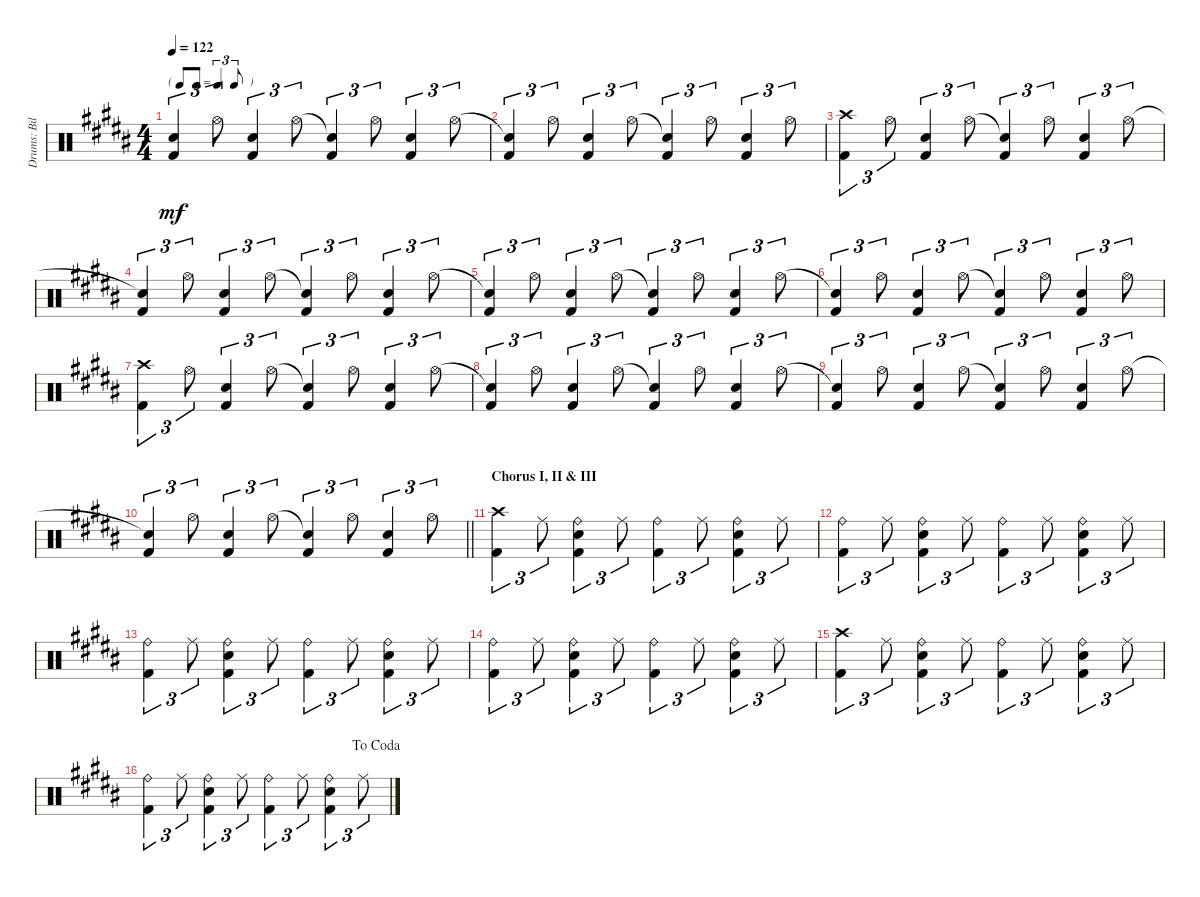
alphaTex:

\track ("Drums: Bill" "Drums: Bil") {instrument percussion}
\staff {score}
\articulation defaults
\ts (4 4)
\tf triplet8th
\tempo 122
\clef neutral
\ks b
("Snare (hit)"{t} "Kick (hit) 2").4{tu (3 2) dy mf} "Hi-Hat (open)".8{tu (3 2)} ("Electric Snare (hit)" "Kick (hit) 2").4{tu (3 2)} "Hi-Hat (open)".8{tu (3 2)} ("Snare (hit)"{t} "Kick (hit) 2").4{tu (3 2)} "Hi-Hat (open)".8{tu (3 2)} ("Electric Snare (hit)" "Kick (hit) 2").4{tu (3 2)} "Hi-Hat (open)".8{tu (3 2)} |
("Snare (hit)"{t} "Kick (hit) 2").4{tu (3 2)} "Hi-Hat (open)".8{tu (3 2)} ("Electric Snare (hit)" "Kick (hit) 2").4{tu (3 2)} "Hi-Hat (open)".8{tu (3 2)} ("Snare (hit)"{t} "Kick (hit) 2").4{tu (3 2)} "Hi-Hat (open)".8{tu (3 2)} ("Electric Snare (hit)" "Kick (hit) 2").4{tu (3 2)} "Hi-Hat (open)".8{tu (3 2)} |
("Crash high (hit)" "Kick (hit) 2").4{tu (3 2)} "Hi-Hat (open)".8{tu (3 2)} ("Electric Snare (hit)" "Kick (hit) 2").4{tu (3 2)} "Hi-Hat (open)".8{tu (3 2)} ("Snare (hit)"{t} "Kick (hit) 2").4{tu (3 2)} "Hi-Hat (open)".8{tu (3 2)} ("Electric Snare (hit)" "Kick (hit) 2").4{tu (3 2)} "Hi-Hat (open)".8{tu (3 2)} |
("Snare (hit)"{t} "Kick (hit) 2").4{tu (3 2)} "Hi-Hat (open)".8{tu (3 2)} ("Electric Snare (hit)" "Kick (hit) 2").4{tu (3 2)} "Hi-Hat (open)".8{tu (3 2)} ("Snare (hit)"{t} "Kick (hit) 2").4{tu (3 2)} "Hi-Hat (open)".8{tu (3 2)} ("Electric Snare (hit)" "Kick (hit) 2").4{tu (3 2)} "Hi-Hat (open)".8{tu (3 2)} |
("Snare (hit)"{t} "Kick (hit) 2").4{tu (3 2)} "Hi-Hat (open)".8{tu (3 2)} ("Electric Snare (hit)" "Kick (hit) 2").4{tu (3 2)} "Hi-Hat (open)".8{tu (3 2)} ("Snare (hit)"{t} "Kick (hit) 2").4{tu (3 2)} "Hi-Hat (open)".8{tu (3 2)} ("Electric Snare (hit)" "Kick (hit) 2").4{tu (3 2)} "Hi-Hat (open)".8{tu (3 2)} |
("Snare (hit)"{t} "Kick (hit) 2").4{tu (3 2)} "Hi-Hat (open)".8{tu (3 2)} ("Electric Snare (hit)" "Kick (hit) 2").4{tu (3 2)} "Hi-Hat (open)".8{tu (3 2)} ("Snare (hit)"{t} "Kick (hit) 2").4{tu (3 2)} "Hi-Hat (open)".8{tu (3 2)} ("Electric Snare (hit)" "Kick (hit) 2").4{tu (3 2)} "Hi-Hat (open)".8{tu (3 2)} |
("Crash high (hit)" "Kick (hit) 2").4{tu (3 2)} "Hi-Hat (open)".8{tu (3 2)} ("Electric Snare (hit)" "Kick (hit) 2").4{tu (3 2)} "Hi-Hat (open)".8{tu (3 2)} ("Snare (hit)"{t} "Kick (hit) 2").4{tu (3 2)} "Hi-Hat (open)".8{tu (3 2)} ("Electric Snare (hit)" "Kick (hit) 2").4{tu (3 2)} "Hi-Hat (open)".8{tu (3 2)} |
("Snare (hit)"{t} "Kick (hit) 2").4{tu (3 2)} "Hi-Hat (open)".8{tu (3 2)} ("Electric Snare (hit)" "Kick (hit) 2").4{tu (3 2)} "Hi-Hat (open)".8{tu (3 2)} ("Snare (hit)"{t} "Kick (hit) 2").4{tu (3 2)} "Hi-Hat (open)".8{tu (3 2)} ("Electric Snare (hit)" "Kick (hit) 2").4{tu (3 2)} "Hi-Hat (open)".8{tu (3 2)} |
("Snare (hit)"{t} "Kick (hit) 2").4{tu (3 2)} "Hi-Hat (open)".8{tu (3 2)} ("Electric Snare (hit)" "Kick (hit) 2").4{tu (3 2)} "Hi-Hat (open)".8{tu (3 2)} ("Snare (hit)"{t} "Kick (hit) 2").4{tu (3 2)} "Hi-Hat (open)".8{tu (3 2)} ("Electric Snare (hit)" "Kick (hit) 2").4{tu (3 2)} "Hi-Hat (open)".8{tu (3 2)} |
\barLineRight lightlight
("Snare (hit)"{t} "Kick (hit) 2").4{tu (3 2)} "Hi-Hat (open)".8{tu (3 2)} ("Electric Snare (hit)" "Kick (hit) 2").4{tu (3 2)} "Hi-Hat (open)".8{tu (3 2)} ("Snare (hit)"{t} "Kick (hit) 2").4{tu (3 2)} "Hi-Hat (open)".8{tu (3 2)} ("Electric Snare (hit)" "Kick (hit) 2").4{tu (3 2)} "Hi-Hat (open)".8{tu (3 2)} |
\section ("" "Chorus I, II & III")
("Crash high (hit)" "Kick (hit) 2").4{tu (3 2)} "Ride (middle)".8{tu (3 2)} ("Ride (bell)" "Electric Snare (hit)" "Kick (hit) 2").4{tu (3 2)} "Ride (middle)".8{tu (3 2)} ("Ride (bell)" "Kick (hit) 2").4{tu (3 2)} "Ride (middle)".8{tu (3 2)} ("Ride (bell)" "Electric Snare (hit)" "Kick (hit) 2").4{tu (3 2)} "Ride (middle)".8{tu (3 2)} |
("Ride (bell)" "Kick (hit) 2").4{tu (3 2)} "Ride (middle)".8{tu (3 2)} ("Ride (bell)" "Electric Snare (hit)" "Kick (hit) 2").4{tu (3 2)} "Ride (middle)".8{tu (3 2)} ("Ride (bell)" "Kick (hit) 2").4{tu (3 2)} "Ride (middle)".8{tu (3 2)} ("Ride (bell)" "Electric Snare (hit)" "Kick (hit) 2").4{tu (3 2)} "Ride (middle)".8{tu (3 2)} |
("Ride (bell)" "Kick (hit) 2").4{tu (3 2)} "Ride (middle)".8{tu (3 2)} ("Ride (bell)" "Electric Snare (hit)" "Kick (hit) 2").4{tu (3 2)} "Ride (middle)".8{tu (3 2)} ("Ride (bell)" "Kick (hit) 2").4{tu (3 2)} "Ride (middle)".8{tu (3 2)} ("Ride (bell)" "Electric Snare (hit)" "Kick (hit) 2").4{tu (3 2)} "Ride (middle)".8{tu (3 2)} |
("Ride (bell)" "Kick (hit) 2").4{tu (3 2)} "Ride (middle)".8{tu (3 2)} ("Ride (bell)" "Electric Snare (hit)" "Kick (hit) 2").4{tu (3 2)} "Ride (middle)".8{tu (3 2)} ("Ride (bell)" "Kick (hit) 2").4{tu (3 2)} "Ride (middle)".8{tu (3 2)} ("Ride (bell)" "Electric Snare (hit)" "Kick (hit) 2").4{tu (3 2)} "Ride (middle)".8{tu (3 2)} |
("Crash high (hit)" "Kick (hit) 2").4{tu (3 2)} "Ride (middle)".8{tu (3 2)} ("Ride (bell)" "Electric Snare (hit)" "Kick (hit) 2").4{tu (3 2)} "Ride (middle)".8{tu (3 2)} ("Ride (bell)" "Kick (hit) 2").4{tu (3 2)} "Ride (middle)".8{tu (3 2)} ("Ride (bell)" "Electric Snare (hit)" "Kick (hit) 2").4{tu (3 2)} "Ride (middle)".8{tu (3 2)} |
\jump dacoda
("Ride (bell)" "Kick (hit) 2").4{tu (3 2)} "Ride (middle)".8{tu (3 2)} ("Ride (bell)" "Electric Snare (hit)" "Kick (hit) 2").4{tu (3 2)} "Ride (middle)".8{tu (3 2)} ("Ride (bell)" "Kick (hit) 2").4{tu (3 2)} "Ride (middle)".8{tu (3 2)} ("Ride (bell)" "Electric Snare (hit)" "Kick (hit) 2").4{tu (3 2)} "Ride (middle)".8{tu (3 2)}
